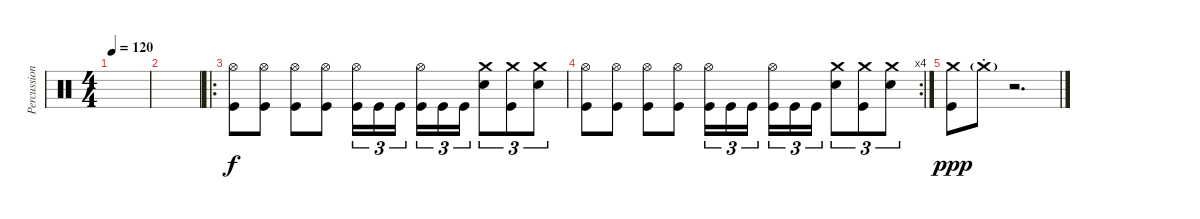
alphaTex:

\track ("Percussion" "Percussion") {instrument percussion}
\staff {score}
\articulation defaults
\ts (4 4)
\tempo 120
\clef neutral
\ks c
|
|
\ro
("Hi-Hat (open)" "Kick (hit)").8 ("Hi-Hat (open)" "Kick (hit)").8 ("Hi-Hat (open)" "Kick (hit)").8 ("Hi-Hat (open)" "Kick (hit)").8 ("Hi-Hat (open)" "Kick (hit)").16{tu (3 2)} "Kick (hit)".16{tu (3 2)} "Kick (hit)".16{tu (3 2) beam splitsecondary} ("Hi-Hat (open)" "Kick (hit)").16{tu (3 2)} "Kick (hit)".16{tu (3 2)} "Kick (hit)".16{tu (3 2)} ("Crash medium (hit)" "Snare (hit) 2").8{tu (3 2)} ("Crash medium (hit)" "Kick (hit)").8{tu (3 2)} ("Crash medium (hit)" "Snare (hit) 2").8{tu (3 2)} |
\rc 4
("Hi-Hat (open)" "Kick (hit)").8 ("Hi-Hat (open)" "Kick (hit)").8 ("Hi-Hat (open)" "Kick (hit)").8 ("Hi-Hat (open)" "Kick (hit)").8 ("Hi-Hat (open)" "Kick (hit)").16{tu (3 2)} "Kick (hit)".16{tu (3 2)} "Kick (hit)".16{tu (3 2) beam splitsecondary} ("Hi-Hat (open)" "Kick (hit)").16{tu (3 2)} "Kick (hit)".16{tu (3 2)} "Kick (hit)".16{tu (3 2)} ("Crash medium (hit)" "Snare (hit) 2").8{tu (3 2)} ("Crash medium (hit)" "Kick (hit)").8{tu (3 2)} ("Crash medium (hit)" "Snare (hit) 2").8{tu (3 2)} |
("Crash medium (hit)" "Kick (hit)").8{dy ppp} "Crash medium (hit)"{g st}.8{volume 0} r.2{d}
